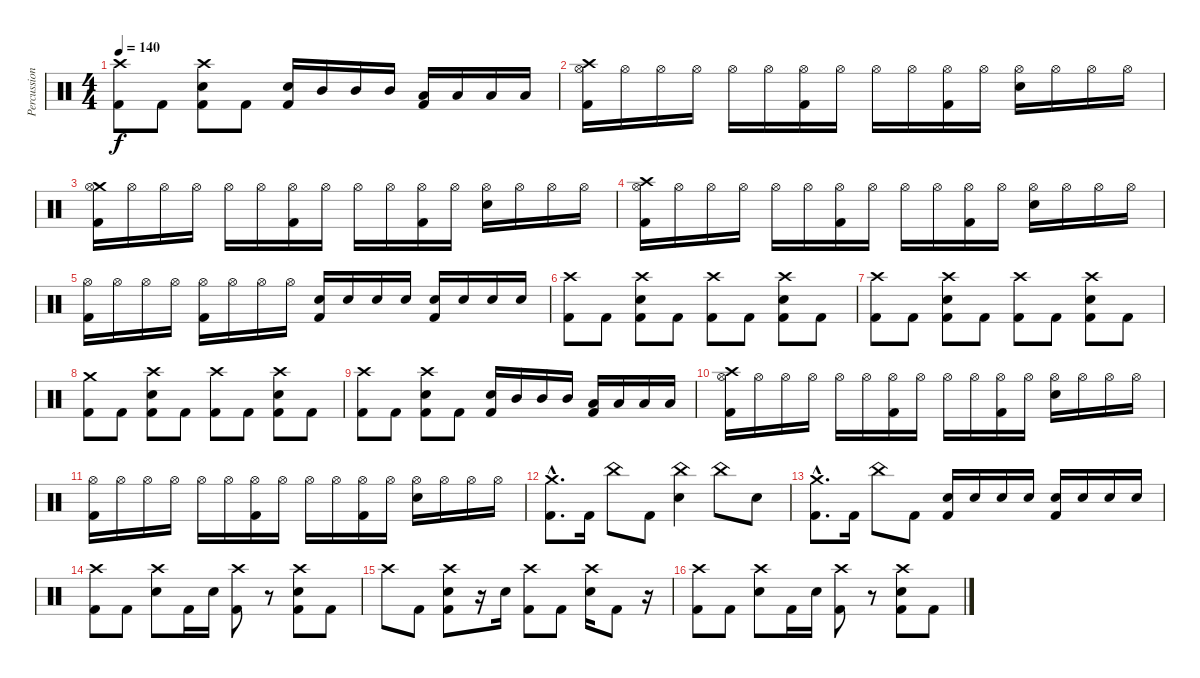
\track ("Percussion" "Percussion") {instrument percussion}
\staff {score}
\articulation defaults
\ts (4 4)
\tempo 140
\clef neutral
\ks c
("Crash high (hit)" "Kick (hit) 2").8{dy f} "Kick (hit) 2".8 ("Crash high (hit)" "Electric Snare (hit)" "Kick (hit) 2").8 "Kick (hit) 2".8 ("Electric Snare (hit)" "Kick (hit) 2").16 "Mid Tom (hit)".16 "Mid Tom (hit)".16 "Mid Tom (hit)".16 ("Low Tom (hit)" "Kick (hit) 2").16 "Low Tom (hit)".16 "Low Floor Tom (hit)".16 "Low Floor Tom (hit)".16 |
("Crash high (hit)" "Hi-Hat (open)" "Kick (hit) 2").16 "Hi-Hat (open)".16 "Hi-Hat (open)".16 "Hi-Hat (open)".16 "Hi-Hat (open)".16 "Hi-Hat (open)".16 ("Hi-Hat (open)" "Kick (hit) 2").16 "Hi-Hat (open)".16 "Hi-Hat (open)".16 "Hi-Hat (open)".16 ("Hi-Hat (open)" "Kick (hit) 2").16 "Hi-Hat (open)".16 ("Hi-Hat (open)" "Electric Snare (hit)").16 "Hi-Hat (open)".16 "Hi-Hat (open)".16 "Hi-Hat (open)".16 |
("Crash medium (hit)" "Hi-Hat (open)" "Kick (hit) 2").16 "Hi-Hat (open)".16 "Hi-Hat (open)".16 "Hi-Hat (open)".16 "Hi-Hat (open)".16 "Hi-Hat (open)".16 ("Hi-Hat (open)" "Kick (hit) 2").16 "Hi-Hat (open)".16 "Hi-Hat (open)".16 "Hi-Hat (open)".16 ("Hi-Hat (open)" "Kick (hit) 2").16 "Hi-Hat (open)".16 ("Hi-Hat (open)" "Electric Snare (hit)").16 "Hi-Hat (open)".16 "Hi-Hat (open)".16 "Hi-Hat (open)".16 |
("Crash high (hit)" "Hi-Hat (open)" "Kick (hit) 2").16 "Hi-Hat (open)".16 "Hi-Hat (open)".16 "Hi-Hat (open)".16 "Hi-Hat (open)".16 "Hi-Hat (open)".16 ("Hi-Hat (open)" "Kick (hit) 2").16 "Hi-Hat (open)".16 "Hi-Hat (open)".16 "Hi-Hat (open)".16 ("Hi-Hat (open)" "Kick (hit) 2").16 "Hi-Hat (open)".16 ("Hi-Hat (open)" "Electric Snare (hit)").16 "Hi-Hat (open)".16 "Hi-Hat (open)".16 "Hi-Hat (open)".16 |
("Hi-Hat (open)" "Kick (hit) 2").16 "Hi-Hat (open)".16 "Hi-Hat (open)".16 "Hi-Hat (open)".16 ("Hi-Hat (open)" "Kick (hit) 2").16 "Hi-Hat (open)".16 "Hi-Hat (open)".16 "Hi-Hat (open)".16 ("Electric Snare (hit)" "Kick (hit) 2").16 "Electric Snare (hit)".16 "Electric Snare (hit)".16 "Electric Snare (hit)".16 ("Electric Snare (hit)" "Kick (hit) 2").16 "Electric Snare (hit)".16 "Electric Snare (hit)".16 "Electric Snare (hit)".16 |
("Crash high (hit)" "Kick (hit) 2").8 "Kick (hit) 2".8 ("Crash high (hit)" "Electric Snare (hit)" "Kick (hit) 2").8 "Kick (hit) 2".8 ("Crash high (hit)" "Kick (hit) 2").8 "Kick (hit) 2".8 ("Crash high (hit)" "Electric Snare (hit)" "Kick (hit) 2").8 "Kick (hit) 2".8 |
("Crash high (hit)" "Kick (hit) 2").8 "Kick (hit) 2".8 ("Crash high (hit)" "Electric Snare (hit)" "Kick (hit) 2").8 "Kick (hit) 2".8 ("Crash high (hit)" "Kick (hit) 2").8 "Kick (hit) 2".8 ("Crash high (hit)" "Electric Snare (hit)" "Kick (hit) 2").8 "Kick (hit) 2".8 |
("Crash medium (hit)" "Kick (hit) 2").8 "Kick (hit) 2".8 ("Crash high (hit)" "Electric Snare (hit)" "Kick (hit) 2").8 "Kick (hit) 2".8 ("Crash high (hit)" "Kick (hit) 2").8 "Kick (hit) 2".8 ("Crash high (hit)" "Electric Snare (hit)" "Kick (hit) 2").8 "Kick (hit) 2".8 |
("Crash high (hit)" "Kick (hit) 2").8 "Kick (hit) 2".8 ("Crash high (hit)" "Electric Snare (hit)" "Kick (hit) 2").8 "Kick (hit) 2".8 ("Electric Snare (hit)" "Kick (hit) 2").16 "Mid Tom (hit)".16 "Mid Tom (hit)".16 "Mid Tom (hit)".16 ("Low Tom (hit)" "Kick (hit) 2").16 "Low Tom (hit)".16 "Low Floor Tom (hit)".16 "Low Floor Tom (hit)".16 |
("Crash high (hit)" "Hi-Hat (open)" "Kick (hit) 2").16 "Hi-Hat (open)".16 "Hi-Hat (open)".16 "Hi-Hat (open)".16 "Hi-Hat (open)".16 "Hi-Hat (open)".16 ("Hi-Hat (open)" "Kick (hit) 2").16 "Hi-Hat (open)".16 "Hi-Hat (open)".16 "Hi-Hat (open)".16 ("Hi-Hat (open)" "Kick (hit) 2").16 "Hi-Hat (open)".16 ("Hi-Hat (open)" "Electric Snare (hit)").16 "Hi-Hat (open)".16 "Hi-Hat (open)".16 "Hi-Hat (open)".16 |
("Hi-Hat (open)" "Kick (hit) 2").16 "Hi-Hat (open)".16 "Hi-Hat (open)".16 "Hi-Hat (open)".16 "Hi-Hat (open)".16 "Hi-Hat (open)".16 ("Hi-Hat (open)" "Kick (hit) 2").16 "Hi-Hat (open)".16 "Hi-Hat (open)".16 "Hi-Hat (open)".16 ("Hi-Hat (open)" "Kick (hit) 2").16 "Hi-Hat (open)".16 ("Hi-Hat (open)" "Electric Snare (hit)").16 "Hi-Hat (open)".16 "Hi-Hat (open)".16 "Hi-Hat (open)".16 |
("Crash medium (hit)"{hac} "Kick (hit) 2"{hac}).8{d} "Kick (hit) 2".16 "China (hit)".8 "Kick (hit) 2".8 ("China (hit)" "Electric Snare (hit)").4 "China (hit)".8 "Electric Snare (hit)".8 |
("Crash medium (hit)"{hac} "Kick (hit) 2"{hac}).8{d} "Kick (hit) 2".16 "China (hit)".8 "Kick (hit) 2".8 ("Electric Snare (hit)" "Kick (hit) 2").16 "Electric Snare (hit)".16 "Electric Snare (hit)".16 "Electric Snare (hit)".16 ("Electric Snare (hit)" "Kick (hit) 2").16 "Electric Snare (hit)".16 "Electric Snare (hit)".16 "Electric Snare (hit)".16 |
("Crash high (hit)" "Kick (hit) 2").8 "Kick (hit) 2".8 ("Crash high (hit)" "Electric Snare (hit)").8 "Kick (hit) 2".16 "Electric Snare (hit)".16 ("Crash high (hit)" "Kick (hit) 2").8 r.8 ("Crash high (hit)" "Electric Snare (hit)" "Kick (hit) 2").8 "Kick (hit) 2".8 |
"Crash high (hit)".8 "Kick (hit) 2".8 ("Crash high (hit)" "Electric Snare (hit)" "Kick (hit) 2").8 r.16 "Electric Snare (hit)".16 ("Crash high (hit)" "Kick (hit) 2").8 "Kick (hit) 2".8 ("Crash high (hit)" "Electric Snare (hit)").16 "Kick (hit) 2".8 r.16 |
("Crash high (hit)" "Kick (hit) 2").8 "Kick (hit) 2".8 ("Crash high (hit)" "Electric Snare (hit)").8 "Kick (hit) 2".16 "Electric Snare (hit)".16 ("Crash high (hit)" "Kick (hit) 2").8 r.8 ("Crash high (hit)" "Electric Snare (hit)" "Kick (hit) 2").8 "Kick (hit) 2".8
